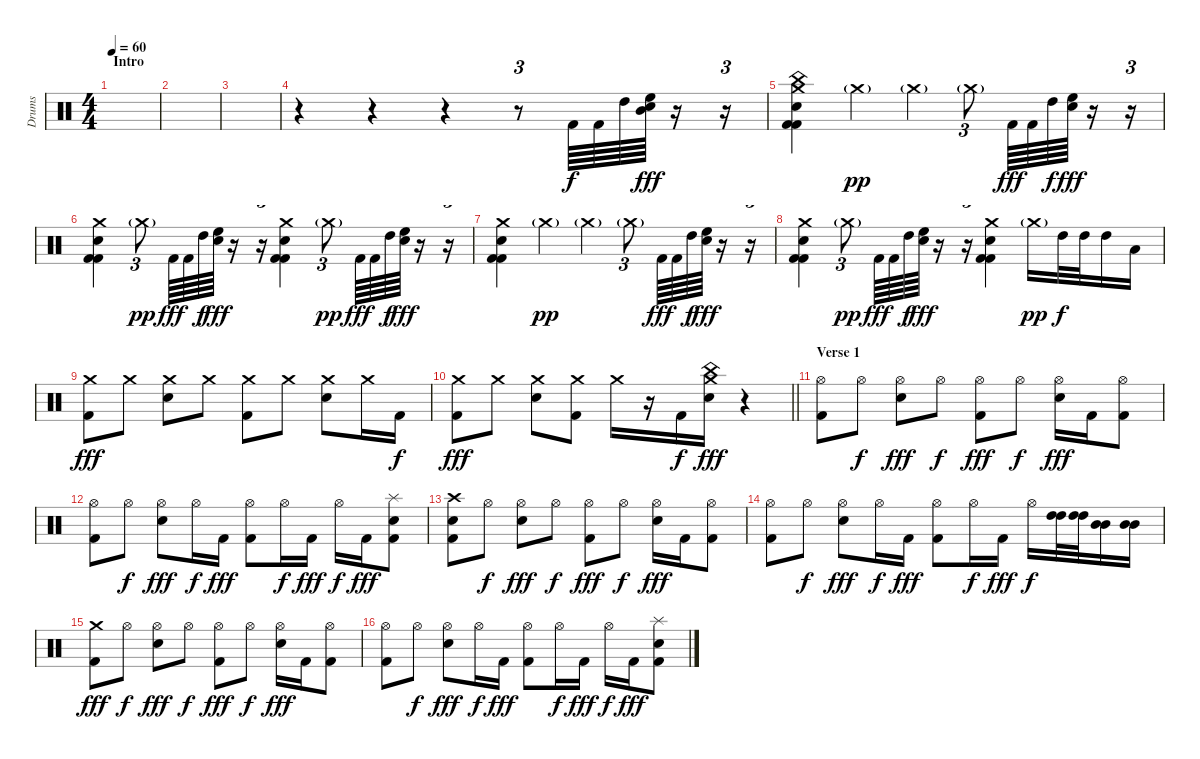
\track ("Drums" "Drums") {instrument percussion}
\staff {score}
\articulation defaults
\ts (4 4)
\section ("" "Intro")
\tempo 60
\clef neutral
\ks c
|
|
|
r.4 r.4 r.4 r.8{tu (3 2)} "Kick (hit) 2".64 "Kick (hit) 2".64 "High Tom (hit)".64{dy f} ("Mid Tom (hit)" "Snare (hit) 2" "High Floor Tom (hit)").64{dy fff} r.16 r.16{tu (3 2)} |
("Crash medium (hit)" "China (hit)" "Snare (hit) 2" "Kick (hit) 2" "Kick (hit) 2").4 "Crash medium (hit)"{g}.4{dy pp} "Crash medium (hit)"{g}.4 "Crash medium (hit)"{g}.8{tu (3 2)} "Kick (hit) 2".64{dy fff} "Kick (hit) 2".64 "High Tom (hit)".64{dy f} ("Snare (hit) 2" "High Floor Tom (hit)").64{dy fff} r.16 r.16{tu (3 2)} |
("Crash medium (hit)" "Snare (hit) 2" "Kick (hit) 2" "Kick (hit) 2").4 "Crash medium (hit)"{g}.8{tu (3 2) dy pp} "Kick (hit) 2".64{dy fff} "Kick (hit) 2".64 "High Tom (hit)".64{dy f} ("Snare (hit) 2" "High Floor Tom (hit)").64{dy fff} r.16 r.16{tu (3 2)} ("Crash medium (hit)" "Snare (hit) 2" "Kick (hit) 2" "Kick (hit) 2").4 "Crash medium (hit)"{g}.8{tu (3 2) dy pp} "Kick (hit) 2".64{dy fff} "Kick (hit) 2".64 "High Tom (hit)".64{dy f} ("Snare (hit) 2" "High Floor Tom (hit)").64{dy fff} r.16 r.16{tu (3 2)} |
("Crash medium (hit)" "Snare (hit) 2" "Kick (hit) 2" "Kick (hit) 2").4 "Crash medium (hit)"{g}.4{dy pp} "Crash medium (hit)"{g}.4 "Crash medium (hit)"{g}.8{tu (3 2)} "Kick (hit) 2".64{dy fff} "Kick (hit) 2".64 "High Tom (hit)".64{dy f} ("Snare (hit) 2" "High Floor Tom (hit)").64{dy fff} r.16 r.16{tu (3 2)} |
("Crash medium (hit)" "Snare (hit) 2" "Kick (hit) 2" "Kick (hit) 2").4 "Crash medium (hit)"{g}.8{tu (3 2) dy pp} "Kick (hit) 2".64{dy fff} "Kick (hit) 2".64 "High Tom (hit)".64{dy f} ("Snare (hit) 2" "High Floor Tom (hit)").64{dy fff} r.16 r.16{tu (3 2)} ("Crash medium (hit)" "Snare (hit) 2" "Kick (hit) 2" "Kick (hit) 2").4 "Crash medium (hit)"{g}.16{dy pp} "High Tom (hit)".32{dy f} "High Tom (hit)".32 "High Tom (hit)".16 "Low Floor Tom (hit)".16 |
("Crash medium (hit)" "Kick (hit) 2").8{dy fff} "Crash medium (hit)".8 ("Crash medium (hit)" "Snare (hit) 2").8 "Crash medium (hit)".8 ("Crash medium (hit)" "Kick (hit) 2").8 "Crash medium (hit)".8 ("Crash medium (hit)" "Snare (hit) 2").8 "Crash medium (hit)".16 "Kick (hit) 2".16{dy f} |
\barLineRight lightlight
("Crash medium (hit)" "Kick (hit) 2").8{dy fff} "Crash medium (hit)".8 ("Crash medium (hit)" "Snare (hit) 2").8 ("Crash medium (hit)" "Kick (hit) 2").8 "Crash medium (hit)".16 r.16 "Kick (hit) 2".16{dy f} ("Crash medium (hit)" "China (hit)" "Snare (hit) 2").16{dy fff} r.4 |
\section ("" "Verse 1")
("Hi-Hat (open)" "Kick (hit) 2").8 "Hi-Hat (open)".8{dy f} ("Hi-Hat (open)" "Snare (hit) 2").8{dy fff} "Hi-Hat (open)".8{dy f} ("Hi-Hat (open)" "Kick (hit) 2").8{dy fff} "Hi-Hat (open)".8{dy f} ("Hi-Hat (open)" "Snare (hit) 2").16{dy fff} "Kick (hit) 2".16 ("Hi-Hat (open)" "Kick (hit) 2").8 |
("Hi-Hat (open)" "Kick (hit) 2").8 "Hi-Hat (open)".8{dy f} ("Hi-Hat (open)" "Snare (hit) 2").8{dy fff} "Hi-Hat (open)".16{dy f} "Kick (hit) 2".16{dy fff} ("Hi-Hat (open)" "Kick (hit) 2").8 "Hi-Hat (open)".16{dy f} "Kick (hit) 2".16{dy fff} "Hi-Hat (open)".16{dy f} "Kick (hit) 2".16{dy fff} ("Splash (hit)" "Snare (hit) 2" "Kick (hit) 2").8 |
("Crash high (hit)" "Snare (hit) 2" "Kick (hit) 2").8 "Hi-Hat (open)".8{dy f} ("Hi-Hat (open)" "Snare (hit) 2").8{dy fff} "Hi-Hat (open)".8{dy f} ("Hi-Hat (open)" "Kick (hit) 2").8{dy fff} "Hi-Hat (open)".8{dy f} ("Hi-Hat (open)" "Snare (hit) 2").16{dy fff} "Kick (hit) 2".16 ("Hi-Hat (open)" "Kick (hit) 2").8 |
("Hi-Hat (open)" "Kick (hit) 2").8 "Hi-Hat (open)".8{dy f} ("Hi-Hat (open)" "Snare (hit) 2").8{dy fff} "Hi-Hat (open)".16{dy f} "Kick (hit) 2".16{dy fff} ("Hi-Hat (open)" "Kick (hit) 2").8 "Hi-Hat (open)".16{dy f} "Kick (hit) 2".16{dy fff} "Hi-Hat (open)".16{dy f} ("High Tom (hit)" "High Tom (hit)").32 ("High Tom (hit)" "High Tom (hit)").32 ("Mid Tom (hit)" "Mid Tom (hit)").16 ("Mid Tom (hit)" "Mid Tom (hit)").16 |
("Crash medium (hit)" "Kick (hit) 2").8{dy fff} "Hi-Hat (open)".8{dy f} ("Hi-Hat (open)" "Snare (hit) 2").8{dy fff} "Hi-Hat (open)".8{dy f} ("Hi-Hat (open)" "Kick (hit) 2").8{dy fff} "Hi-Hat (open)".8{dy f} ("Hi-Hat (open)" "Snare (hit) 2").16{dy fff} "Kick (hit) 2".16 ("Hi-Hat (open)" "Kick (hit) 2").8 |
("Hi-Hat (open)" "Kick (hit) 2").8 "Hi-Hat (open)".8{dy f} ("Hi-Hat (open)" "Snare (hit) 2").8{dy fff} "Hi-Hat (open)".16{dy f} "Kick (hit) 2".16{dy fff} ("Hi-Hat (open)" "Kick (hit) 2").8 "Hi-Hat (open)".16{dy f} "Kick (hit) 2".16{dy fff} "Hi-Hat (open)".16{dy f} "Kick (hit) 2".16{dy fff} ("Splash (hit)" "Snare (hit) 2" "Kick (hit) 2").8
